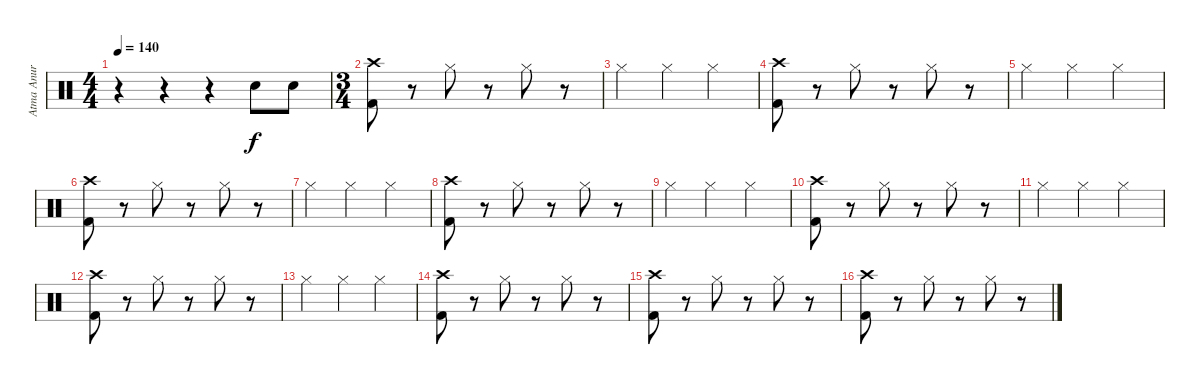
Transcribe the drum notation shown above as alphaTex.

\track ("Atma Anur" "Atma Anur") {instrument percussion}
\staff {score}
\articulation defaults
\ts (4 4)
\tempo 140
\clef neutral
\ks c
r.4{dy f} r.4 r.4 "Snare (hit) 2".8 "Snare (hit) 2".8 |
\ts (3 4)
("Crash high (hit)" "Kick (hit) 2").8 r.8 "Hi-Hat (closed)".8 r.8 "Hi-Hat (closed)".8 r.8 |
"Hi-Hat (closed)".4 "Hi-Hat (closed)".4 "Hi-Hat (closed)".4 |
("Crash high (hit)" "Kick (hit) 2").8 r.8 "Hi-Hat (closed)".8 r.8 "Hi-Hat (closed)".8 r.8 |
"Hi-Hat (closed)".4 "Hi-Hat (closed)".4 "Hi-Hat (closed)".4 |
("Crash high (hit)" "Kick (hit) 2").8 r.8 "Hi-Hat (closed)".8 r.8 "Hi-Hat (closed)".8 r.8 |
"Hi-Hat (closed)".4 "Hi-Hat (closed)".4 "Hi-Hat (closed)".4 |
("Crash high (hit)" "Kick (hit) 2").8 r.8 "Hi-Hat (closed)".8 r.8 "Hi-Hat (closed)".8 r.8 |
"Hi-Hat (closed)".4 "Hi-Hat (closed)".4 "Hi-Hat (closed)".4 |
("Crash high (hit)" "Kick (hit) 2").8 r.8 "Hi-Hat (closed)".8 r.8 "Hi-Hat (closed)".8 r.8 |
"Hi-Hat (closed)".4 "Hi-Hat (closed)".4 "Hi-Hat (closed)".4 |
("Crash high (hit)" "Kick (hit) 2").8 r.8 "Hi-Hat (closed)".8 r.8 "Hi-Hat (closed)".8 r.8 |
"Hi-Hat (closed)".4 "Hi-Hat (closed)".4 "Hi-Hat (closed)".4 |
("Crash high (hit)" "Kick (hit) 2").8 r.8 "Hi-Hat (closed)".8 r.8 "Hi-Hat (closed)".8 r.8 |
("Crash high (hit)" "Kick (hit) 2").8 r.8 "Hi-Hat (closed)".8 r.8 "Hi-Hat (closed)".8 r.8 |
("Crash high (hit)" "Kick (hit) 2").8 r.8 "Hi-Hat (closed)".8 r.8 "Hi-Hat (closed)".8 r.8
